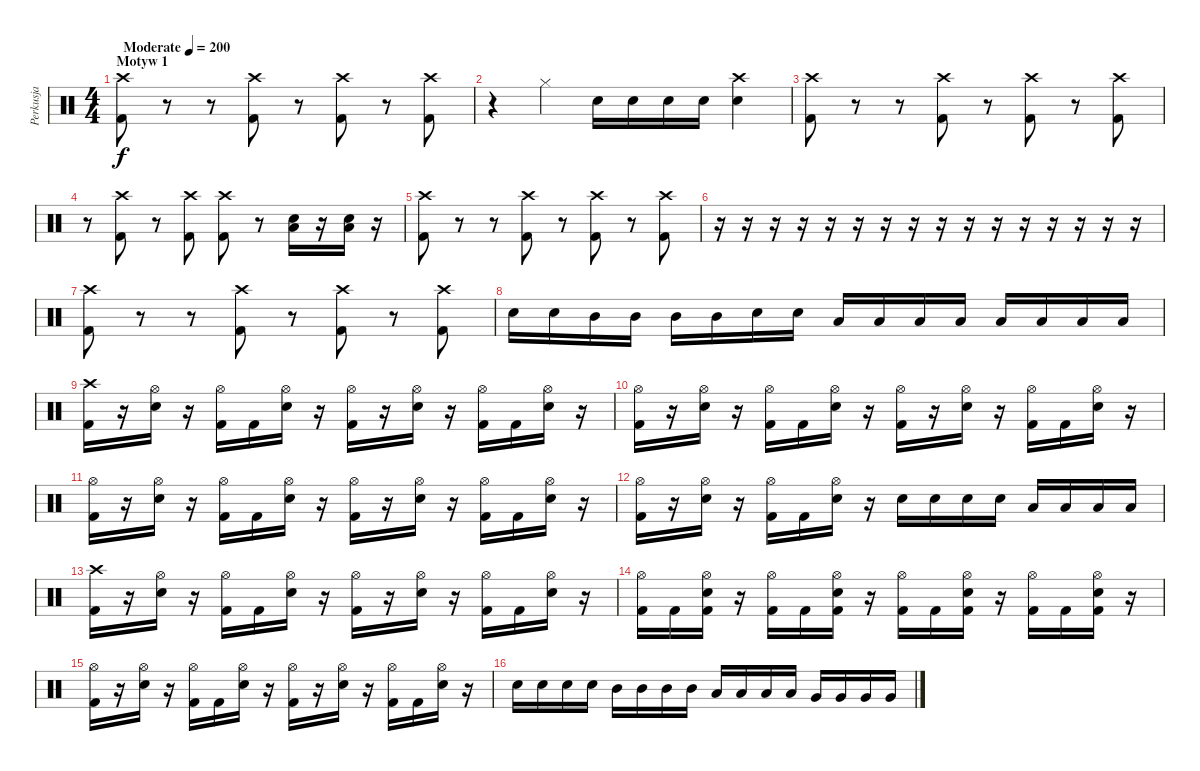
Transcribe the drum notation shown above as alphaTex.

\track ("Perkusja" "Perkusja") {instrument percussion}
\staff {score}
\articulation defaults
\ts (4 4)
\section ("" "Motyw 1")
\tempo (200 "Moderate")
\clef neutral
\ks c
("Crash high (hit)" "Kick (hit) 2").8{dy f} r.8 r.8 ("Crash high (hit)" "Kick (hit) 2").8 r.8 ("Crash high (hit)" "Kick (hit) 2").8 r.8 ("Crash high (hit)" "Kick (hit) 2").8 |
r.4 "Hi-Hat (closed)".4 "Snare (hit) 2".16 "Snare (hit) 2".16 "Snare (hit) 2".16 "Snare (hit) 2".16 ("Crash high (hit)" "Snare (hit) 2").4 |
("Crash high (hit)" "Kick (hit) 2").8 r.8 r.8 ("Crash high (hit)" "Kick (hit) 2").8 r.8 ("Crash high (hit)" "Kick (hit) 2").8 r.8 ("Crash high (hit)" "Kick (hit) 2").8 |
r.8 ("Crash high (hit)" "Kick (hit) 2").8 r.8 ("Crash high (hit)" "Kick (hit) 2").8 ("Crash high (hit)" "Kick (hit) 2").8 r.8 ("Snare (hit) 2" "Low Floor Tom (hit)").16 r.16 ("Snare (hit) 2" "Low Floor Tom (hit)").16 r.16 |
("Crash high (hit)" "Kick (hit) 2").8 r.8 r.8 ("Crash high (hit)" "Kick (hit) 2").8 r.8 ("Crash high (hit)" "Kick (hit) 2").8 r.8 ("Crash high (hit)" "Kick (hit) 2").8 |
r.16 r.16 r.16 r.16 r.16 r.16 r.16 r.16 r.16 r.16 r.16 r.16 r.16 r.16 r.16 r.16 |
("Crash high (hit)" "Kick (hit) 2").8 r.8 r.8 ("Crash high (hit)" "Kick (hit) 2").8 r.8 ("Crash high (hit)" "Kick (hit) 2").8 r.8 ("Crash high (hit)" "Kick (hit) 2").8 |
"Snare (hit) 2".16 "Snare (hit) 2".16 "Mid Tom (hit)".16 "Mid Tom (hit)".16 "Mid Tom (hit)".16 "Mid Tom (hit)".16 "Snare (hit) 2".16 "Snare (hit) 2".16 "Low Tom (hit)".16 "Low Tom (hit)".16 "Low Tom (hit)".16 "Low Tom (hit)".16 "Low Floor Tom (hit)".16 "Low Floor Tom (hit)".16 "Low Floor Tom (hit)".16 "Low Floor Tom (hit)".16 |
("Crash high (hit)" "Kick (hit) 2").16 r.16 ("Hi-Hat (open)" "Snare (hit) 2").16 r.16 ("Hi-Hat (open)" "Kick (hit) 2").16 "Kick (hit) 2".16 ("Hi-Hat (open)" "Snare (hit) 2").16 r.16 ("Hi-Hat (open)" "Kick (hit) 2").16 r.16 ("Hi-Hat (open)" "Snare (hit) 2").16 r.16 ("Hi-Hat (open)" "Kick (hit) 2").16 "Kick (hit) 2".16 ("Hi-Hat (open)" "Snare (hit) 2").16 r.16 |
("Hi-Hat (open)" "Kick (hit) 2").16 r.16 ("Hi-Hat (open)" "Snare (hit) 2").16 r.16 ("Hi-Hat (open)" "Kick (hit) 2").16 "Kick (hit) 2".16 ("Hi-Hat (open)" "Snare (hit) 2").16 r.16 ("Hi-Hat (open)" "Kick (hit) 2").16 r.16 ("Hi-Hat (open)" "Snare (hit) 2").16 r.16 ("Hi-Hat (open)" "Kick (hit) 2").16 "Kick (hit) 2".16 ("Hi-Hat (open)" "Snare (hit) 2").16 r.16 |
("Hi-Hat (open)" "Kick (hit) 2").16 r.16 ("Hi-Hat (open)" "Snare (hit) 2").16 r.16 ("Hi-Hat (open)" "Kick (hit) 2").16 "Kick (hit) 2".16 ("Hi-Hat (open)" "Snare (hit) 2").16 r.16 ("Hi-Hat (open)" "Kick (hit) 2").16 r.16 ("Hi-Hat (open)" "Snare (hit) 2").16 r.16 ("Hi-Hat (open)" "Kick (hit) 2").16 "Kick (hit) 2".16 ("Hi-Hat (open)" "Snare (hit) 2").16 r.16 |
("Hi-Hat (open)" "Kick (hit) 2").16 r.16 ("Hi-Hat (open)" "Snare (hit) 2").16 r.16 ("Hi-Hat (open)" "Kick (hit) 2").16 "Kick (hit) 2".16 ("Hi-Hat (open)" "Snare (hit) 2").16 r.16 "Snare (hit) 2".16 "Snare (hit) 2".16 "Snare (hit) 2".16 "Snare (hit) 2".16 "Low Tom (hit)".16 "Low Tom (hit)".16 "Low Floor Tom (hit)".16 "Low Floor Tom (hit)".16 |
("Crash high (hit)" "Kick (hit) 2").16 r.16 ("Hi-Hat (open)" "Snare (hit) 2").16 r.16 ("Hi-Hat (open)" "Kick (hit) 2").16 "Kick (hit) 2".16 ("Hi-Hat (open)" "Snare (hit) 2").16 r.16 ("Hi-Hat (open)" "Kick (hit) 2").16 r.16 ("Hi-Hat (open)" "Snare (hit) 2").16 r.16 ("Hi-Hat (open)" "Kick (hit) 2").16 "Kick (hit) 2".16 ("Hi-Hat (open)" "Snare (hit) 2").16 r.16 |
("Hi-Hat (open)" "Kick (hit) 2").16 "Kick (hit) 2".16 ("Hi-Hat (open)" "Snare (hit) 2" "Kick (hit) 2").16 r.16 ("Hi-Hat (open)" "Kick (hit) 2").16 "Kick (hit) 2".16 ("Hi-Hat (open)" "Snare (hit) 2" "Kick (hit) 2").16 r.16 ("Hi-Hat (open)" "Kick (hit) 2").16 "Kick (hit) 2".16 ("Hi-Hat (open)" "Snare (hit) 2" "Kick (hit) 2").16 r.16 ("Hi-Hat (open)" "Kick (hit) 2").16 "Kick (hit) 2".16 ("Hi-Hat (open)" "Snare (hit) 2" "Kick (hit) 2").16 r.16 |
("Hi-Hat (open)" "Kick (hit) 2").16 r.16 ("Hi-Hat (open)" "Snare (hit) 2").16 r.16 ("Hi-Hat (open)" "Kick (hit) 2").16 "Kick (hit) 2".16 ("Hi-Hat (open)" "Snare (hit) 2").16 r.16 ("Hi-Hat (open)" "Kick (hit) 2").16 r.16 ("Hi-Hat (open)" "Snare (hit) 2").16 r.16 ("Hi-Hat (open)" "Kick (hit) 2").16 "Kick (hit) 2".16 ("Hi-Hat (open)" "Snare (hit) 2").16 r.16 |
"Snare (hit) 2".16 "Snare (hit) 2".16 "Snare (hit) 2".16 "Snare (hit) 2".16 "Mid Tom (hit)".16 "Mid Tom (hit)".16 "Mid Tom (hit)".16 "Mid Tom (hit)".16 "Low Tom (hit)".16 "Low Tom (hit)".16 "Low Tom (hit)".16 "Low Tom (hit)".16 "Very Low Tom (hit)".16 "Very Low Tom (hit)".16 "Very Low Tom (hit)".16 "Very Low Tom (hit)".16
